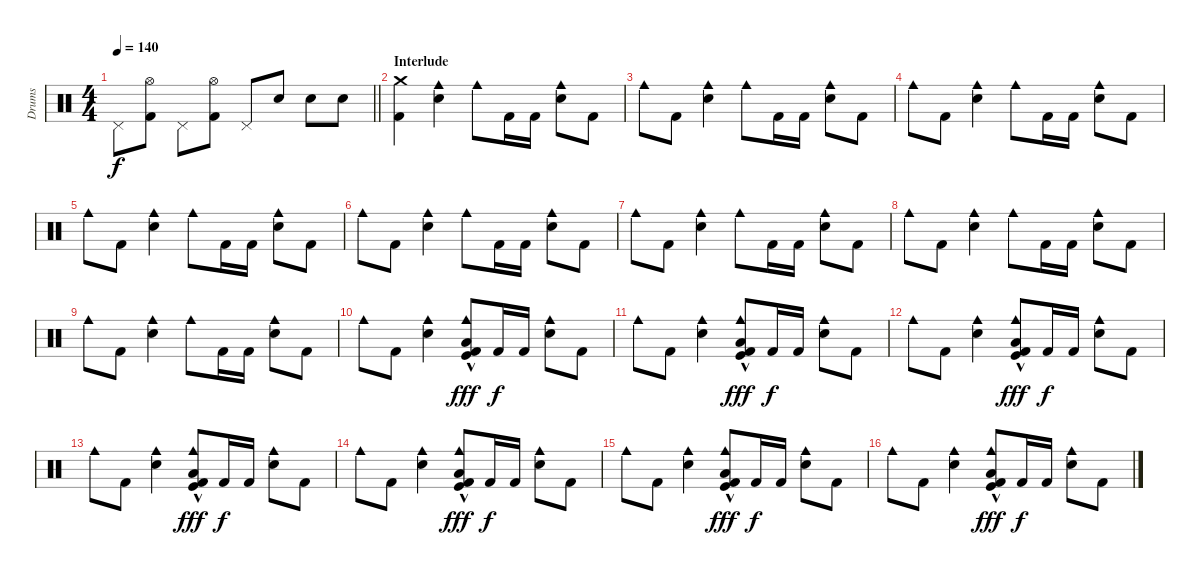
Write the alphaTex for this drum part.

\track ("Drums" "Drums") {instrument percussion}
\staff {score}
\articulation defaults
\ts (4 4)
\tempo 140
\clef neutral
\barLineRight lightlight
\ks c "Pedal Hi-Hat (hit)".8{dy f}
("Hi-Hat (open)" "Kick (hit) 2").8 "Pedal Hi-Hat (hit)".8 ("Hi-Hat (open)" "Kick (hit) 2").8 "Pedal Hi-Hat (hit)".8 "Electric Snare (hit)".8 "Electric Snare (hit)".8 "Electric Snare (hit)".8 |
\section ("" "Interlude")
("Crash medium (hit)" "Kick (hit) 2").4 ("Electric Snare (hit)" "Cowbell medium (hit)").4 "Cowbell medium (hit)".8 "Kick (hit) 2".16 "Kick (hit) 2".16 ("Electric Snare (hit)" "Cowbell medium (hit)").8 "Kick (hit) 2".8 |
"Cowbell medium (hit)".8 "Kick (hit) 2".8 ("Electric Snare (hit)" "Cowbell medium (hit)").4 "Cowbell medium (hit)".8 "Kick (hit) 2".16 "Kick (hit) 2".16 ("Electric Snare (hit)" "Cowbell medium (hit)").8 "Kick (hit) 2".8 |
"Cowbell medium (hit)".8 "Kick (hit) 2".8 ("Electric Snare (hit)" "Cowbell medium (hit)").4 "Cowbell medium (hit)".8 "Kick (hit) 2".16 "Kick (hit) 2".16 ("Electric Snare (hit)" "Cowbell medium (hit)").8 "Kick (hit) 2".8 |
"Cowbell medium (hit)".8 "Kick (hit) 2".8 ("Electric Snare (hit)" "Cowbell medium (hit)").4 "Cowbell medium (hit)".8 "Kick (hit) 2".16 "Kick (hit) 2".16 ("Electric Snare (hit)" "Cowbell medium (hit)").8 "Kick (hit) 2".8 |
"Cowbell medium (hit)".8 "Kick (hit) 2".8 ("Electric Snare (hit)" "Cowbell medium (hit)").4 "Cowbell medium (hit)".8 "Kick (hit) 2".16 "Kick (hit) 2".16 ("Electric Snare (hit)" "Cowbell medium (hit)").8 "Kick (hit) 2".8 |
"Cowbell medium (hit)".8 "Kick (hit) 2".8 ("Electric Snare (hit)" "Cowbell medium (hit)").4 "Cowbell medium (hit)".8 "Kick (hit) 2".16 "Kick (hit) 2".16 ("Electric Snare (hit)" "Cowbell medium (hit)").8 "Kick (hit) 2".8 |
"Cowbell medium (hit)".8 "Kick (hit) 2".8 ("Electric Snare (hit)" "Cowbell medium (hit)").4 "Cowbell medium (hit)".8 "Kick (hit) 2".16 "Kick (hit) 2".16 ("Electric Snare (hit)" "Cowbell medium (hit)").8 "Kick (hit) 2".8 |
"Cowbell medium (hit)".8 "Kick (hit) 2".8 ("Electric Snare (hit)" "Cowbell medium (hit)").4 "Cowbell medium (hit)".8 "Kick (hit) 2".16 "Kick (hit) 2".16 ("Electric Snare (hit)" "Cowbell medium (hit)").8 "Kick (hit) 2".8 |
"Cowbell medium (hit)".8 "Kick (hit) 2".8 ("Electric Snare (hit)" "Cowbell medium (hit)").4 ("Low Floor Tom (hit)"{hac} "Kick (hit) 2"{hac} "Cowbell medium (hit)" "Kick (hit)"{hac}).8{dy fff} "Kick (hit) 2".16{dy f} "Kick (hit) 2".16 ("Electric Snare (hit)" "Cowbell medium (hit)").8 "Kick (hit) 2".8 |
"Cowbell medium (hit)".8 "Kick (hit) 2".8 ("Electric Snare (hit)" "Cowbell medium (hit)").4 ("Low Floor Tom (hit)"{hac} "Kick (hit) 2"{hac} "Cowbell medium (hit)" "Kick (hit)"{hac}).8{dy fff} "Kick (hit) 2".16{dy f} "Kick (hit) 2".16 ("Electric Snare (hit)" "Cowbell medium (hit)").8 "Kick (hit) 2".8 |
"Cowbell medium (hit)".8 "Kick (hit) 2".8 ("Electric Snare (hit)" "Cowbell medium (hit)").4 ("Low Floor Tom (hit)"{hac} "Kick (hit) 2"{hac} "Cowbell medium (hit)" "Kick (hit)"{hac}).8{dy fff} "Kick (hit) 2".16{dy f} "Kick (hit) 2".16 ("Electric Snare (hit)" "Cowbell medium (hit)").8 "Kick (hit) 2".8 |
"Cowbell medium (hit)".8 "Kick (hit) 2".8 ("Electric Snare (hit)" "Cowbell medium (hit)").4 ("Low Floor Tom (hit)"{hac} "Kick (hit) 2"{hac} "Cowbell medium (hit)" "Kick (hit)"{hac}).8{dy fff} "Kick (hit) 2".16{dy f} "Kick (hit) 2".16 ("Electric Snare (hit)" "Cowbell medium (hit)").8 "Kick (hit) 2".8 |
"Cowbell medium (hit)".8 "Kick (hit) 2".8 ("Electric Snare (hit)" "Cowbell medium (hit)").4 ("Low Floor Tom (hit)"{hac} "Kick (hit) 2"{hac} "Cowbell medium (hit)" "Kick (hit)"{hac}).8{dy fff} "Kick (hit) 2".16{dy f} "Kick (hit) 2".16 ("Electric Snare (hit)" "Cowbell medium (hit)").8 "Kick (hit) 2".8 |
"Cowbell medium (hit)".8 "Kick (hit) 2".8 ("Electric Snare (hit)" "Cowbell medium (hit)").4 ("Low Floor Tom (hit)"{hac} "Kick (hit) 2"{hac} "Cowbell medium (hit)" "Kick (hit)"{hac}).8{dy fff} "Kick (hit) 2".16{dy f} "Kick (hit) 2".16 ("Electric Snare (hit)" "Cowbell medium (hit)").8 "Kick (hit) 2".8 |
"Cowbell medium (hit)".8 "Kick (hit) 2".8 ("Electric Snare (hit)" "Cowbell medium (hit)").4 ("Low Floor Tom (hit)"{hac} "Kick (hit) 2"{hac} "Cowbell medium (hit)" "Kick (hit)"{hac}).8{dy fff} "Kick (hit) 2".16{dy f} "Kick (hit) 2".16 ("Electric Snare (hit)" "Cowbell medium (hit)").8 "Kick (hit) 2".8
